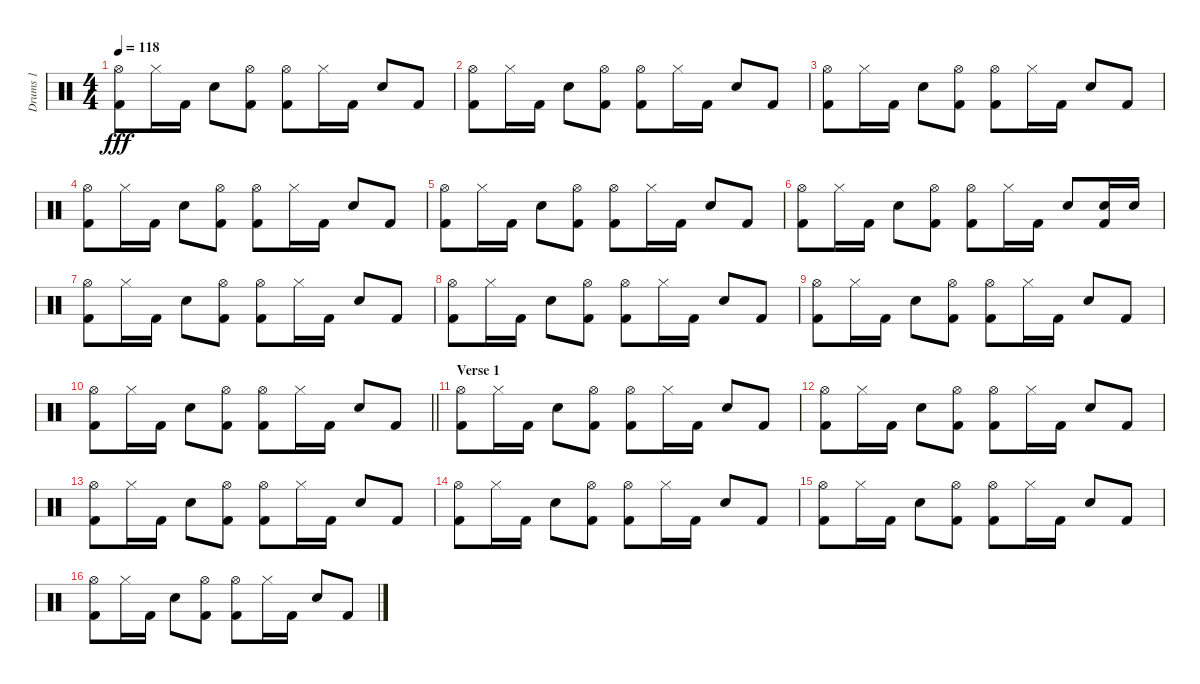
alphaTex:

\track ("Drums 1" "Drums 1") {instrument percussion}
\staff {score}
\articulation defaults
\ts (4 4)
\tempo 118
\clef neutral
\ks c
("Hi-Hat (open)" "Kick (hit) 2").8{dy fff} "Hi-Hat (closed)".16 "Kick (hit) 2".16 "Electric Snare (hit)".8 ("Hi-Hat (open)" "Kick (hit) 2").8 ("Hi-Hat (open)" "Kick (hit) 2").8 "Hi-Hat (closed)".16 "Kick (hit) 2".16 "Electric Snare (hit)".8 "Kick (hit) 2".8 |
("Hi-Hat (open)" "Kick (hit) 2").8 "Hi-Hat (closed)".16 "Kick (hit) 2".16 "Electric Snare (hit)".8 ("Hi-Hat (open)" "Kick (hit) 2").8 ("Hi-Hat (open)" "Kick (hit) 2").8 "Hi-Hat (closed)".16 "Kick (hit) 2".16 "Electric Snare (hit)".8 "Kick (hit) 2".8 |
("Hi-Hat (open)" "Kick (hit) 2").8 "Hi-Hat (closed)".16 "Kick (hit) 2".16 "Electric Snare (hit)".8 ("Hi-Hat (open)" "Kick (hit) 2").8 ("Hi-Hat (open)" "Kick (hit) 2").8 "Hi-Hat (closed)".16 "Kick (hit) 2".16 "Electric Snare (hit)".8 "Kick (hit) 2".8 |
("Hi-Hat (open)" "Kick (hit) 2").8 "Hi-Hat (closed)".16 "Kick (hit) 2".16 "Electric Snare (hit)".8 ("Hi-Hat (open)" "Kick (hit) 2").8 ("Hi-Hat (open)" "Kick (hit) 2").8 "Hi-Hat (closed)".16 "Kick (hit) 2".16 "Electric Snare (hit)".8 "Kick (hit) 2".8 |
("Hi-Hat (open)" "Kick (hit) 2").8 "Hi-Hat (closed)".16 "Kick (hit) 2".16 "Electric Snare (hit)".8 ("Hi-Hat (open)" "Kick (hit) 2").8 ("Hi-Hat (open)" "Kick (hit) 2").8 "Hi-Hat (closed)".16 "Kick (hit) 2".16 "Electric Snare (hit)".8 "Kick (hit) 2".8 |
("Hi-Hat (open)" "Kick (hit) 2").8 "Hi-Hat (closed)".16 "Kick (hit) 2".16 "Electric Snare (hit)".8 ("Hi-Hat (open)" "Kick (hit) 2").8 ("Hi-Hat (open)" "Kick (hit) 2").8 "Hi-Hat (closed)".16 "Kick (hit) 2".16 "Electric Snare (hit)".8 ("Kick (hit) 2" "Electric Snare (hit)").16 "Electric Snare (hit)".16 |
("Hi-Hat (open)" "Kick (hit) 2").8 "Hi-Hat (closed)".16 "Kick (hit) 2".16 "Electric Snare (hit)".8 ("Hi-Hat (open)" "Kick (hit) 2").8 ("Hi-Hat (open)" "Kick (hit) 2").8 "Hi-Hat (closed)".16 "Kick (hit) 2".16 "Electric Snare (hit)".8 "Kick (hit) 2".8 |
("Hi-Hat (open)" "Kick (hit) 2").8 "Hi-Hat (closed)".16 "Kick (hit) 2".16 "Electric Snare (hit)".8 ("Hi-Hat (open)" "Kick (hit) 2").8 ("Hi-Hat (open)" "Kick (hit) 2").8 "Hi-Hat (closed)".16 "Kick (hit) 2".16 "Electric Snare (hit)".8 "Kick (hit) 2".8 |
("Hi-Hat (open)" "Kick (hit) 2").8 "Hi-Hat (closed)".16 "Kick (hit) 2".16 "Electric Snare (hit)".8 ("Hi-Hat (open)" "Kick (hit) 2").8 ("Hi-Hat (open)" "Kick (hit) 2").8 "Hi-Hat (closed)".16 "Kick (hit) 2".16 "Electric Snare (hit)".8 "Kick (hit) 2".8 |
\barLineRight lightlight
("Hi-Hat (open)" "Kick (hit) 2").8 "Hi-Hat (closed)".16 "Kick (hit) 2".16 "Electric Snare (hit)".8 ("Hi-Hat (open)" "Kick (hit) 2").8 ("Hi-Hat (open)" "Kick (hit) 2").8 "Hi-Hat (closed)".16 "Kick (hit) 2".16 "Electric Snare (hit)".8 "Kick (hit) 2".8 |
\section ("" "Verse 1")
("Hi-Hat (open)" "Kick (hit) 2").8 "Hi-Hat (closed)".16 "Kick (hit) 2".16 "Electric Snare (hit)".8 ("Hi-Hat (open)" "Kick (hit) 2").8 ("Hi-Hat (open)" "Kick (hit) 2").8 "Hi-Hat (closed)".16 "Kick (hit) 2".16 "Electric Snare (hit)".8 "Kick (hit) 2".8 |
("Hi-Hat (open)" "Kick (hit) 2").8 "Hi-Hat (closed)".16 "Kick (hit) 2".16 "Electric Snare (hit)".8 ("Hi-Hat (open)" "Kick (hit) 2").8 ("Hi-Hat (open)" "Kick (hit) 2").8 "Hi-Hat (closed)".16 "Kick (hit) 2".16 "Electric Snare (hit)".8 "Kick (hit) 2".8 |
("Hi-Hat (open)" "Kick (hit) 2").8 "Hi-Hat (closed)".16 "Kick (hit) 2".16 "Electric Snare (hit)".8 ("Hi-Hat (open)" "Kick (hit) 2").8 ("Hi-Hat (open)" "Kick (hit) 2").8 "Hi-Hat (closed)".16 "Kick (hit) 2".16 "Electric Snare (hit)".8 "Kick (hit) 2".8 |
("Hi-Hat (open)" "Kick (hit) 2").8 "Hi-Hat (closed)".16 "Kick (hit) 2".16 "Electric Snare (hit)".8 ("Hi-Hat (open)" "Kick (hit) 2").8 ("Hi-Hat (open)" "Kick (hit) 2").8 "Hi-Hat (closed)".16 "Kick (hit) 2".16 "Electric Snare (hit)".8 "Kick (hit) 2".8 |
("Hi-Hat (open)" "Kick (hit) 2").8 "Hi-Hat (closed)".16 "Kick (hit) 2".16 "Electric Snare (hit)".8 ("Hi-Hat (open)" "Kick (hit) 2").8 ("Hi-Hat (open)" "Kick (hit) 2").8 "Hi-Hat (closed)".16 "Kick (hit) 2".16 "Electric Snare (hit)".8 "Kick (hit) 2".8 |
("Hi-Hat (open)" "Kick (hit) 2").8 "Hi-Hat (closed)".16 "Kick (hit) 2".16 "Electric Snare (hit)".8 ("Hi-Hat (open)" "Kick (hit) 2").8 ("Hi-Hat (open)" "Kick (hit) 2").8 "Hi-Hat (closed)".16 "Kick (hit) 2".16 "Electric Snare (hit)".8 "Kick (hit) 2".8
